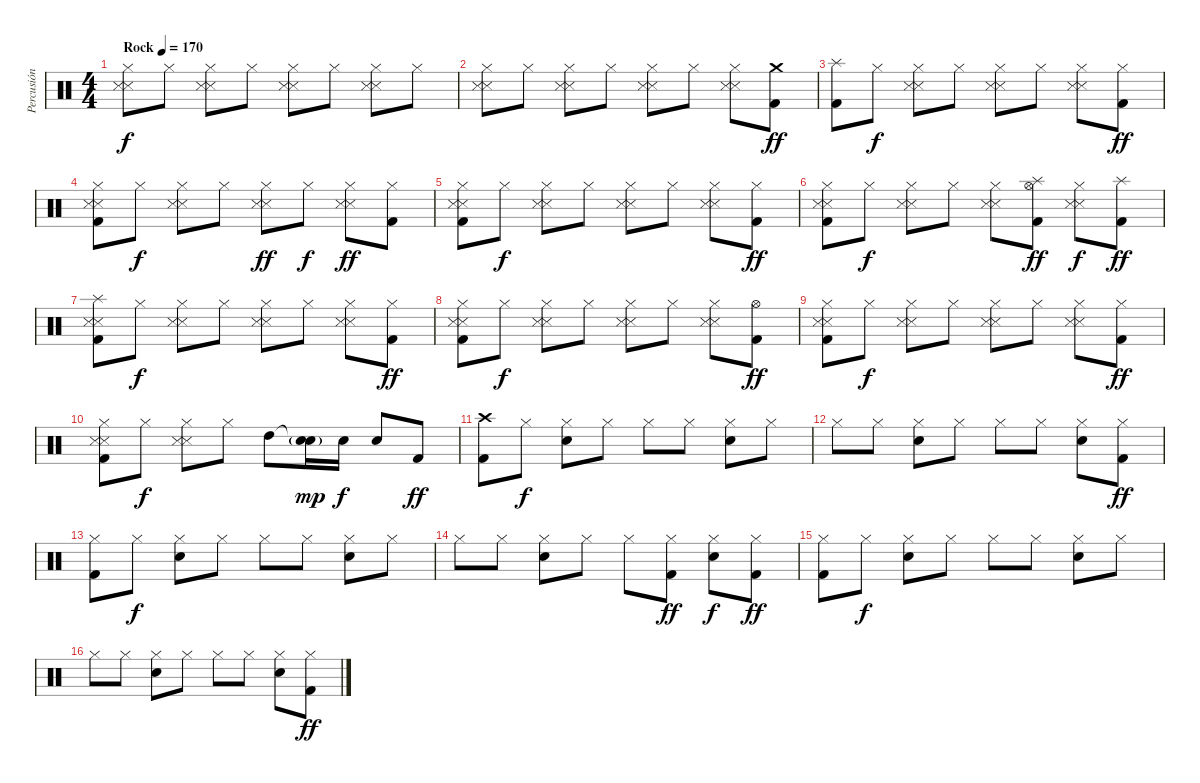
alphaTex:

\track ("Percusión" "Percusión") {instrument percussion}
\staff {score}
\articulation defaults
\ts (4 4)
\tempo (170 "Rock")
\clef neutral
\ks c
("Snare (side stick) 3" "Snare (side stick) 3" "Hi-Hat (closed)").8{dy f} "Hi-Hat (closed)".8 ("Snare (side stick) 3" "Snare (side stick) 3" "Hi-Hat (closed)").8 "Hi-Hat (closed)".8 ("Snare (side stick) 3" "Snare (side stick) 3" "Hi-Hat (closed)").8 "Hi-Hat (closed)".8 ("Snare (side stick) 3" "Snare (side stick) 3" "Hi-Hat (closed)").8 "Hi-Hat (closed)".8 |
("Snare (side stick) 3" "Snare (side stick) 3" "Hi-Hat (closed)").8 "Hi-Hat (closed)".8 ("Snare (side stick) 3" "Snare (side stick) 3" "Hi-Hat (closed)").8 "Hi-Hat (closed)".8 ("Snare (side stick) 3" "Snare (side stick) 3" "Hi-Hat (closed)").8 "Hi-Hat (closed)".8 ("Snare (side stick) 3" "Snare (side stick) 3" "Hi-Hat (closed)").8 ("Crash medium (hit)" "Kick (hit) 2").8{dy ff} |
("Splash (hit)" "Kick (hit) 2").8 "Hi-Hat (closed)".8{dy f} ("Hi-Hat (closed)" "Snare (side stick) 3" "Snare (side stick) 3").8 "Hi-Hat (closed)".8 ("Hi-Hat (closed)" "Snare (side stick) 3" "Snare (side stick) 3").8 "Hi-Hat (closed)".8 ("Hi-Hat (closed)" "Snare (side stick) 3" "Snare (side stick) 3").8 ("Hi-Hat (closed)" "Kick (hit) 2").8{dy ff} |
("Hi-Hat (closed)" "Snare (side stick) 3" "Snare (side stick) 3" "Kick (hit) 2").8 "Hi-Hat (closed)".8{dy f} ("Hi-Hat (closed)" "Snare (side stick) 3" "Snare (side stick) 3").8 "Hi-Hat (closed)".8 ("Hi-Hat (closed)" "Snare (side stick) 3" "Snare (side stick) 3").8{dy ff} "Hi-Hat (closed)".8{dy f} ("Hi-Hat (closed)" "Snare (side stick) 3" "Snare (side stick) 3").8{dy ff} ("Hi-Hat (closed)" "Kick (hit) 2").8 |
("Hi-Hat (closed)" "Snare (side stick) 3" "Snare (side stick) 3" "Kick (hit) 2").8 "Hi-Hat (closed)".8{dy f} ("Hi-Hat (closed)" "Snare (side stick) 3" "Snare (side stick) 3").8 "Hi-Hat (closed)".8 ("Hi-Hat (closed)" "Snare (side stick) 3" "Snare (side stick) 3").8 "Hi-Hat (closed)".8 ("Hi-Hat (closed)" "Snare (side stick) 3" "Snare (side stick) 3").8 ("Hi-Hat (closed)" "Kick (hit) 2").8{dy ff} |
("Hi-Hat (closed)" "Snare (side stick) 3" "Snare (side stick) 3" "Kick (hit) 2").8 "Hi-Hat (closed)".8{dy f} ("Hi-Hat (closed)" "Snare (side stick) 3" "Snare (side stick) 3").8 "Hi-Hat (closed)".8 ("Hi-Hat (closed)" "Snare (side stick) 3" "Snare (side stick) 3").8 ("Hi-Hat (open)" "Splash (hit)" "Kick (hit) 2").8{dy ff} ("Hi-Hat (closed)" "Snare (side stick) 3" "Snare (side stick) 3").8{dy f} ("Splash (hit)" "Kick (hit) 2").8{dy ff} |
("Splash (hit)" "Snare (side stick) 3" "Snare (side stick) 3" "Kick (hit) 2").8 "Hi-Hat (closed)".8{dy f} ("Hi-Hat (closed)" "Snare (side stick) 3" "Snare (side stick) 3").8 "Hi-Hat (closed)".8 ("Hi-Hat (closed)" "Snare (side stick) 3" "Snare (side stick) 3").8 "Hi-Hat (closed)".8 ("Hi-Hat (closed)" "Snare (side stick) 3" "Snare (side stick) 3").8 ("Hi-Hat (closed)" "Kick (hit) 2").8{dy ff} |
("Hi-Hat (closed)" "Snare (side stick) 3" "Snare (side stick) 3" "Kick (hit) 2").8 "Hi-Hat (closed)".8{dy f} ("Hi-Hat (closed)" "Snare (side stick) 3" "Snare (side stick) 3").8 "Hi-Hat (closed)".8 ("Hi-Hat (closed)" "Snare (side stick) 3" "Snare (side stick) 3").8 "Hi-Hat (closed)".8 ("Hi-Hat (closed)" "Snare (side stick) 3" "Snare (side stick) 3").8 ("Hi-Hat (open)" "Kick (hit) 2").8{dy ff} |
("Hi-Hat (closed)" "Snare (side stick) 3" "Snare (side stick) 3" "Kick (hit) 2").8 "Hi-Hat (closed)".8{dy f} ("Hi-Hat (closed)" "Snare (side stick) 3" "Snare (side stick) 3").8 "Hi-Hat (closed)".8 ("Hi-Hat (closed)" "Snare (side stick) 3" "Snare (side stick) 3").8 "Hi-Hat (closed)".8 ("Hi-Hat (closed)" "Snare (side stick) 3" "Snare (side stick) 3").8 ("Hi-Hat (closed)" "Kick (hit) 2").8{dy ff} |
("Hi-Hat (closed)" "Snare (side stick) 3" "Snare (side stick) 3" "Kick (hit) 2").8 "Hi-Hat (closed)".8{dy f} ("Hi-Hat (closed)" "Snare (side stick) 3" "Snare (side stick) 3").8 "Hi-Hat (closed)".8 "High Tom (hit)".8 ("Snare (hit)"{t} "Snare (hit) 2"{g}).16{dy mp} "Snare (hit) 2".16{dy f} "Snare (hit) 2".8 "Kick (hit) 2".8{dy ff} |
("Crash high (hit)" "Kick (hit) 2").8 "Hi-Hat (closed)".8{dy f} ("Hi-Hat (closed)" "Snare (hit) 2").8 "Hi-Hat (closed)".8 "Hi-Hat (closed)".8 "Hi-Hat (closed)".8 ("Hi-Hat (closed)" "Snare (hit) 2").8 "Hi-Hat (closed)".8 |
"Hi-Hat (closed)".8 "Hi-Hat (closed)".8 ("Hi-Hat (closed)" "Snare (hit) 2").8 "Hi-Hat (closed)".8 "Hi-Hat (closed)".8 "Hi-Hat (closed)".8 ("Hi-Hat (closed)" "Snare (hit) 2").8 ("Hi-Hat (closed)" "Kick (hit) 2").8{dy ff} |
("Hi-Hat (closed)" "Kick (hit) 2").8 "Hi-Hat (closed)".8{dy f} ("Hi-Hat (closed)" "Snare (hit) 2").8 "Hi-Hat (closed)".8 "Hi-Hat (closed)".8 "Hi-Hat (closed)".8 ("Hi-Hat (closed)" "Snare (hit) 2").8 "Hi-Hat (closed)".8 |
"Hi-Hat (closed)".8 "Hi-Hat (closed)".8 ("Hi-Hat (closed)" "Snare (hit) 2").8 "Hi-Hat (closed)".8 "Hi-Hat (closed)".8 ("Hi-Hat (closed)" "Kick (hit) 2").8{dy ff} ("Hi-Hat (closed)" "Snare (hit) 2").8{dy f} ("Hi-Hat (closed)" "Kick (hit) 2").8{dy ff} |
("Hi-Hat (closed)" "Kick (hit) 2").8 "Hi-Hat (closed)".8{dy f} ("Hi-Hat (closed)" "Snare (hit) 2").8 "Hi-Hat (closed)".8 "Hi-Hat (closed)".8 "Hi-Hat (closed)".8 ("Hi-Hat (closed)" "Snare (hit) 2").8 "Hi-Hat (closed)".8 |
"Hi-Hat (closed)".8 "Hi-Hat (closed)".8 ("Hi-Hat (closed)" "Snare (hit) 2").8 "Hi-Hat (closed)".8 "Hi-Hat (closed)".8 "Hi-Hat (closed)".8 ("Hi-Hat (closed)" "Snare (hit) 2").8 ("Hi-Hat (closed)" "Kick (hit) 2").8{dy ff}
